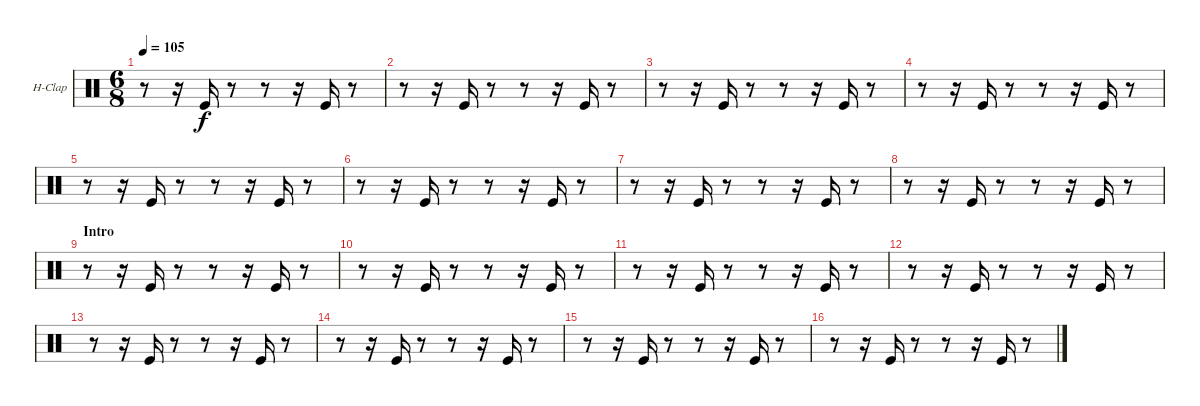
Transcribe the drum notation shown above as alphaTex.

\defaultSystemsLayout 4
\bracketExtendMode nobrackets
\firstSystemTrackNameOrientation horizontal
\otherSystemsTrackNameOrientation horizontal
\track ("Hand Clap" "H-Clap") {instrument percussion}
\staff {score}
\articulation defaults
\ts (6 8)
\tempo 105
\clef neutral
\ks c
r.8{dy f} r.16 "Kick (hit)".16 r.8 r.8 r.16 "Kick (hit)".16 r.8 |
r.8 r.16 "Kick (hit)".16 r.8 r.8 r.16 "Kick (hit)".16 r.8 |
r.8 r.16 "Kick (hit)".16 r.8 r.8 r.16 "Kick (hit)".16 r.8 |
r.8 r.16 "Kick (hit)".16 r.8 r.8 r.16 "Kick (hit)".16 r.8 |
r.8 r.16 "Kick (hit)".16 r.8 r.8 r.16 "Kick (hit)".16 r.8 |
r.8 r.16 "Kick (hit)".16 r.8 r.8 r.16 "Kick (hit)".16 r.8 |
r.8 r.16 "Kick (hit)".16 r.8 r.8 r.16 "Kick (hit)".16 r.8 |
r.8 r.16 "Kick (hit)".16 r.8 r.8 r.16 "Kick (hit)".16 r.8 |
\section ("" "Intro")
r.8 r.16 "Kick (hit)".16 r.8 r.8 r.16 "Kick (hit)".16 r.8 |
r.8 r.16 "Kick (hit)".16 r.8 r.8 r.16 "Kick (hit)".16 r.8 |
r.8 r.16 "Kick (hit)".16 r.8 r.8 r.16 "Kick (hit)".16 r.8 |
r.8 r.16 "Kick (hit)".16 r.8 r.8 r.16 "Kick (hit)".16 r.8 |
r.8 r.16 "Kick (hit)".16 r.8 r.8 r.16 "Kick (hit)".16 r.8 |
r.8 r.16 "Kick (hit)".16 r.8 r.8 r.16 "Kick (hit)".16 r.8 |
r.8 r.16 "Kick (hit)".16 r.8 r.8 r.16 "Kick (hit)".16 r.8 |
r.8 r.16 "Kick (hit)".16 r.8 r.8 r.16 "Kick (hit)".16 r.8
